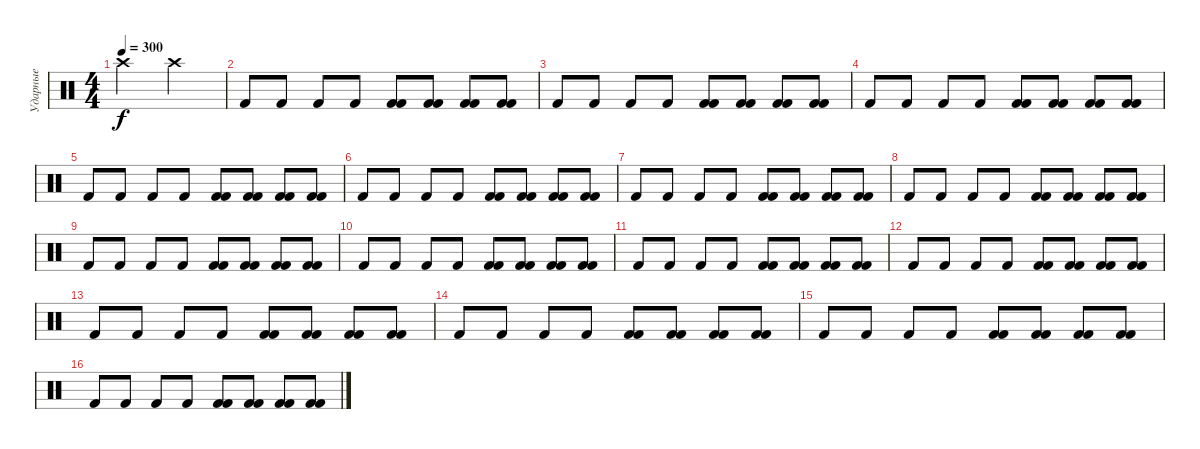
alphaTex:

\track ("Ударные" "Ударные") {instrument percussion}
\staff {score}
\articulation defaults
\ts (4 4)
\tempo 300
\clef neutral
\ks c "Crash high (hit)".2{dy f} "Crash high (hit)".2
|
"Kick (hit) 2".8 "Kick (hit) 2".8 "Kick (hit) 2".8 "Kick (hit) 2".8 ("Kick (hit) 2" "Kick (hit) 2").8 ("Kick (hit) 2" "Kick (hit) 2").8 ("Kick (hit) 2" "Kick (hit) 2").8 ("Kick (hit) 2" "Kick (hit) 2").8 |
"Kick (hit) 2".8 "Kick (hit) 2".8 "Kick (hit) 2".8 "Kick (hit) 2".8 ("Kick (hit) 2" "Kick (hit) 2").8 ("Kick (hit) 2" "Kick (hit) 2").8 ("Kick (hit) 2" "Kick (hit) 2").8 ("Kick (hit) 2" "Kick (hit) 2").8 |
"Kick (hit) 2".8 "Kick (hit) 2".8 "Kick (hit) 2".8 "Kick (hit) 2".8 ("Kick (hit) 2" "Kick (hit) 2").8 ("Kick (hit) 2" "Kick (hit) 2").8 ("Kick (hit) 2" "Kick (hit) 2").8 ("Kick (hit) 2" "Kick (hit) 2").8 |
"Kick (hit) 2".8 "Kick (hit) 2".8 "Kick (hit) 2".8 "Kick (hit) 2".8 ("Kick (hit) 2" "Kick (hit) 2").8 ("Kick (hit) 2" "Kick (hit) 2").8 ("Kick (hit) 2" "Kick (hit) 2").8 ("Kick (hit) 2" "Kick (hit) 2").8 |
"Kick (hit) 2".8 "Kick (hit) 2".8 "Kick (hit) 2".8 "Kick (hit) 2".8 ("Kick (hit) 2" "Kick (hit) 2").8 ("Kick (hit) 2" "Kick (hit) 2").8 ("Kick (hit) 2" "Kick (hit) 2").8 ("Kick (hit) 2" "Kick (hit) 2").8 |
"Kick (hit) 2".8 "Kick (hit) 2".8 "Kick (hit) 2".8 "Kick (hit) 2".8 ("Kick (hit) 2" "Kick (hit) 2").8 ("Kick (hit) 2" "Kick (hit) 2").8 ("Kick (hit) 2" "Kick (hit) 2").8 ("Kick (hit) 2" "Kick (hit) 2").8 |
"Kick (hit) 2".8 "Kick (hit) 2".8 "Kick (hit) 2".8 "Kick (hit) 2".8 ("Kick (hit) 2" "Kick (hit) 2").8 ("Kick (hit) 2" "Kick (hit) 2").8 ("Kick (hit) 2" "Kick (hit) 2").8 ("Kick (hit) 2" "Kick (hit) 2").8 |
"Kick (hit) 2".8 "Kick (hit) 2".8 "Kick (hit) 2".8 "Kick (hit) 2".8 ("Kick (hit) 2" "Kick (hit) 2").8 ("Kick (hit) 2" "Kick (hit) 2").8 ("Kick (hit) 2" "Kick (hit) 2").8 ("Kick (hit) 2" "Kick (hit) 2").8 |
"Kick (hit) 2".8 "Kick (hit) 2".8 "Kick (hit) 2".8 "Kick (hit) 2".8 ("Kick (hit) 2" "Kick (hit) 2").8 ("Kick (hit) 2" "Kick (hit) 2").8 ("Kick (hit) 2" "Kick (hit) 2").8 ("Kick (hit) 2" "Kick (hit) 2").8 |
"Kick (hit) 2".8 "Kick (hit) 2".8 "Kick (hit) 2".8 "Kick (hit) 2".8 ("Kick (hit) 2" "Kick (hit) 2").8 ("Kick (hit) 2" "Kick (hit) 2").8 ("Kick (hit) 2" "Kick (hit) 2").8 ("Kick (hit) 2" "Kick (hit) 2").8 |
"Kick (hit) 2".8 "Kick (hit) 2".8 "Kick (hit) 2".8 "Kick (hit) 2".8 ("Kick (hit) 2" "Kick (hit) 2").8 ("Kick (hit) 2" "Kick (hit) 2").8 ("Kick (hit) 2" "Kick (hit) 2").8 ("Kick (hit) 2" "Kick (hit) 2").8 |
"Kick (hit) 2".8 "Kick (hit) 2".8 "Kick (hit) 2".8 "Kick (hit) 2".8 ("Kick (hit) 2" "Kick (hit) 2").8 ("Kick (hit) 2" "Kick (hit) 2").8 ("Kick (hit) 2" "Kick (hit) 2").8 ("Kick (hit) 2" "Kick (hit) 2").8 |
"Kick (hit) 2".8 "Kick (hit) 2".8 "Kick (hit) 2".8 "Kick (hit) 2".8 ("Kick (hit) 2" "Kick (hit) 2").8 ("Kick (hit) 2" "Kick (hit) 2").8 ("Kick (hit) 2" "Kick (hit) 2").8 ("Kick (hit) 2" "Kick (hit) 2").8 |
"Kick (hit) 2".8 "Kick (hit) 2".8 "Kick (hit) 2".8 "Kick (hit) 2".8 ("Kick (hit) 2" "Kick (hit) 2").8 ("Kick (hit) 2" "Kick (hit) 2").8 ("Kick (hit) 2" "Kick (hit) 2").8 ("Kick (hit) 2" "Kick (hit) 2").8 |
"Kick (hit) 2".8 "Kick (hit) 2".8 "Kick (hit) 2".8 "Kick (hit) 2".8 ("Kick (hit) 2" "Kick (hit) 2").8 ("Kick (hit) 2" "Kick (hit) 2").8 ("Kick (hit) 2" "Kick (hit) 2").8 ("Kick (hit) 2" "Kick (hit) 2").8
